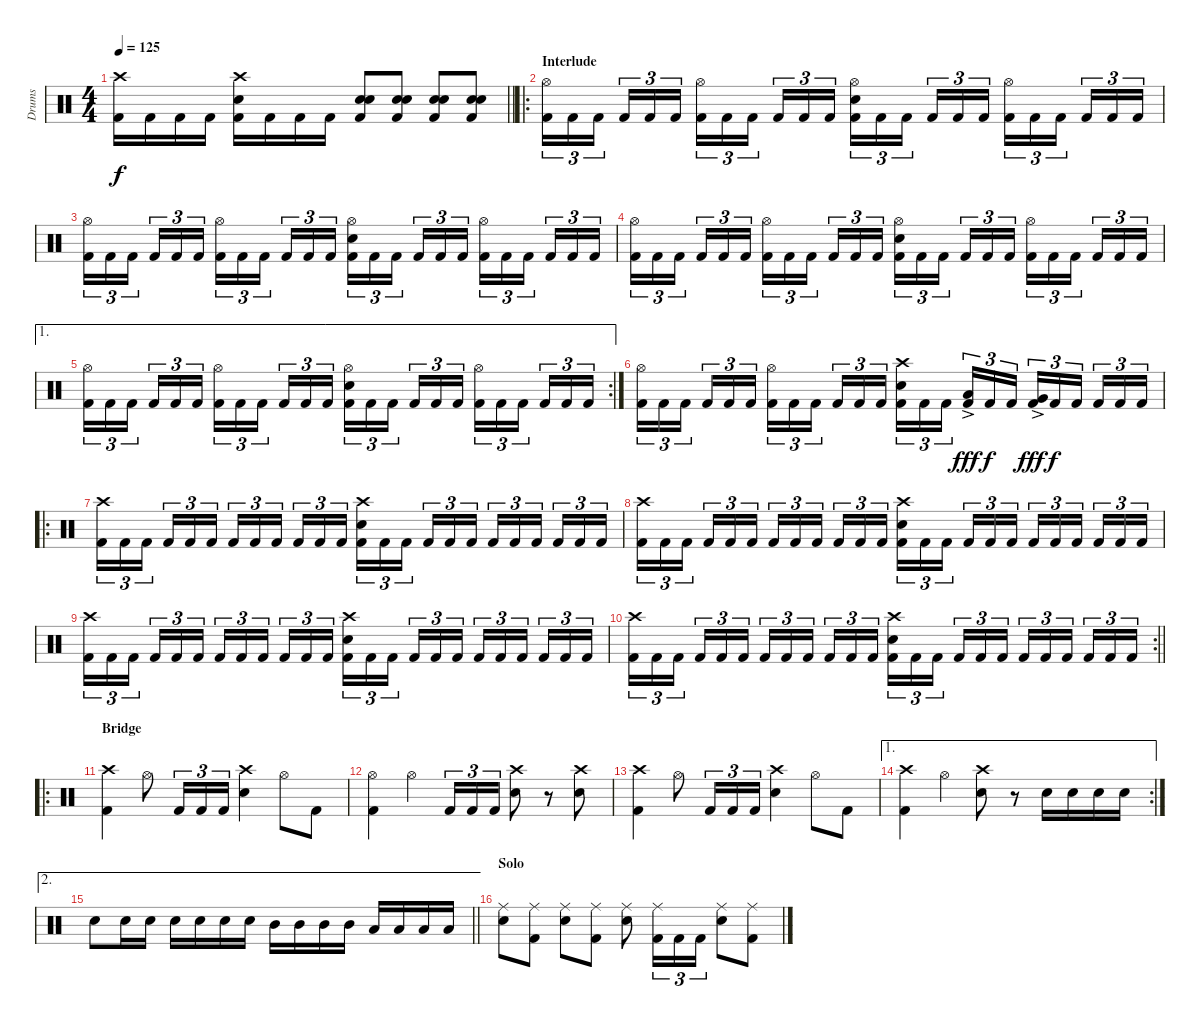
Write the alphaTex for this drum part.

\track ("Drums" "Drums") {instrument percussion}
\staff {score}
\articulation defaults
\ts (4 4)
\tempo 125
\clef neutral
\barLineRight lightlight
\ks c
("Crash high (hit)" "Kick (hit) 2").16{dy f} "Kick (hit) 2".16 "Kick (hit) 2".16 "Kick (hit) 2".16 ("Crash high (hit)" "Snare (hit) 2" "Kick (hit) 2").16 "Kick (hit) 2".16 "Kick (hit) 2".16 "Kick (hit) 2".16 ("Snare (hit) 2" "Snare (hit) 2" "Kick (hit) 2").8 ("Snare (hit) 2" "Snare (hit) 2" "Kick (hit) 2").8 ("Snare (hit) 2" "Snare (hit) 2" "Kick (hit) 2").8 ("Snare (hit) 2" "Snare (hit) 2" "Kick (hit) 2").8 |
\ro
\section ("" "Interlude")
("Hi-Hat (open)" "Kick (hit) 2").16{tu (3 2)} "Kick (hit) 2".16{tu (3 2)} "Kick (hit) 2".16{tu (3 2) beam splitsecondary} "Kick (hit) 2".16{tu (3 2)} "Kick (hit) 2".16{tu (3 2)} "Kick (hit) 2".16{tu (3 2)} ("Hi-Hat (open)" "Kick (hit) 2").16{tu (3 2)} "Kick (hit) 2".16{tu (3 2)} "Kick (hit) 2".16{tu (3 2) beam splitsecondary} "Kick (hit) 2".16{tu (3 2)} "Kick (hit) 2".16{tu (3 2)} "Kick (hit) 2".16{tu (3 2)} ("Hi-Hat (open)" "Snare (hit) 2" "Kick (hit) 2").16{tu (3 2)} "Kick (hit) 2".16{tu (3 2)} "Kick (hit) 2".16{tu (3 2) beam splitsecondary} "Kick (hit) 2".16{tu (3 2)} "Kick (hit) 2".16{tu (3 2)} "Kick (hit) 2".16{tu (3 2)} ("Hi-Hat (open)" "Kick (hit) 2").16{tu (3 2)} "Kick (hit) 2".16{tu (3 2)} "Kick (hit) 2".16{tu (3 2) beam splitsecondary} "Kick (hit) 2".16{tu (3 2)} "Kick (hit) 2".16{tu (3 2)} "Kick (hit) 2".16{tu (3 2)} |
("Hi-Hat (open)" "Kick (hit) 2").16{tu (3 2)} "Kick (hit) 2".16{tu (3 2)} "Kick (hit) 2".16{tu (3 2) beam splitsecondary} "Kick (hit) 2".16{tu (3 2)} "Kick (hit) 2".16{tu (3 2)} "Kick (hit) 2".16{tu (3 2)} ("Hi-Hat (open)" "Kick (hit) 2").16{tu (3 2)} "Kick (hit) 2".16{tu (3 2)} "Kick (hit) 2".16{tu (3 2) beam splitsecondary} "Kick (hit) 2".16{tu (3 2)} "Kick (hit) 2".16{tu (3 2)} "Kick (hit) 2".16{tu (3 2)} ("Hi-Hat (open)" "Snare (hit) 2" "Kick (hit) 2").16{tu (3 2)} "Kick (hit) 2".16{tu (3 2)} "Kick (hit) 2".16{tu (3 2) beam splitsecondary} "Kick (hit) 2".16{tu (3 2)} "Kick (hit) 2".16{tu (3 2)} "Kick (hit) 2".16{tu (3 2)} ("Hi-Hat (open)" "Kick (hit) 2").16{tu (3 2)} "Kick (hit) 2".16{tu (3 2)} "Kick (hit) 2".16{tu (3 2) beam splitsecondary} "Kick (hit) 2".16{tu (3 2)} "Kick (hit) 2".16{tu (3 2)} "Kick (hit) 2".16{tu (3 2)} |
("Hi-Hat (open)" "Kick (hit) 2").16{tu (3 2)} "Kick (hit) 2".16{tu (3 2)} "Kick (hit) 2".16{tu (3 2) beam splitsecondary} "Kick (hit) 2".16{tu (3 2)} "Kick (hit) 2".16{tu (3 2)} "Kick (hit) 2".16{tu (3 2)} ("Hi-Hat (open)" "Kick (hit) 2").16{tu (3 2)} "Kick (hit) 2".16{tu (3 2)} "Kick (hit) 2".16{tu (3 2) beam splitsecondary} "Kick (hit) 2".16{tu (3 2)} "Kick (hit) 2".16{tu (3 2)} "Kick (hit) 2".16{tu (3 2)} ("Hi-Hat (open)" "Snare (hit) 2" "Kick (hit) 2").16{tu (3 2)} "Kick (hit) 2".16{tu (3 2)} "Kick (hit) 2".16{tu (3 2) beam splitsecondary} "Kick (hit) 2".16{tu (3 2)} "Kick (hit) 2".16{tu (3 2)} "Kick (hit) 2".16{tu (3 2)} ("Hi-Hat (open)" "Kick (hit) 2").16{tu (3 2)} "Kick (hit) 2".16{tu (3 2)} "Kick (hit) 2".16{tu (3 2) beam splitsecondary} "Kick (hit) 2".16{tu (3 2)} "Kick (hit) 2".16{tu (3 2)} "Kick (hit) 2".16{tu (3 2)} |
\ae 1
\rc 2
("Hi-Hat (open)" "Kick (hit) 2").16{tu (3 2)} "Kick (hit) 2".16{tu (3 2)} "Kick (hit) 2".16{tu (3 2) beam splitsecondary} "Kick (hit) 2".16{tu (3 2)} "Kick (hit) 2".16{tu (3 2)} "Kick (hit) 2".16{tu (3 2)} ("Hi-Hat (open)" "Kick (hit) 2").16{tu (3 2)} "Kick (hit) 2".16{tu (3 2)} "Kick (hit) 2".16{tu (3 2) beam splitsecondary} "Kick (hit) 2".16{tu (3 2)} "Kick (hit) 2".16{tu (3 2)} "Kick (hit) 2".16{tu (3 2)} ("Hi-Hat (open)" "Snare (hit) 2" "Kick (hit) 2").16{tu (3 2)} "Kick (hit) 2".16{tu (3 2)} "Kick (hit) 2".16{tu (3 2) beam splitsecondary} "Kick (hit) 2".16{tu (3 2)} "Kick (hit) 2".16{tu (3 2)} "Kick (hit) 2".16{tu (3 2)} ("Hi-Hat (open)" "Kick (hit) 2").16{tu (3 2)} "Kick (hit) 2".16{tu (3 2)} "Kick (hit) 2".16{tu (3 2) beam splitsecondary} "Kick (hit) 2".16{tu (3 2)} "Kick (hit) 2".16{tu (3 2)} "Kick (hit) 2".16{tu (3 2)} |
("Hi-Hat (open)" "Kick (hit) 2").16{tu (3 2)} "Kick (hit) 2".16{tu (3 2)} "Kick (hit) 2".16{tu (3 2) beam splitsecondary} "Kick (hit) 2".16{tu (3 2)} "Kick (hit) 2".16{tu (3 2)} "Kick (hit) 2".16{tu (3 2)} ("Hi-Hat (open)" "Kick (hit) 2").16{tu (3 2)} "Kick (hit) 2".16{tu (3 2)} "Kick (hit) 2".16{tu (3 2) beam splitsecondary} "Kick (hit) 2".16{tu (3 2)} "Kick (hit) 2".16{tu (3 2)} "Kick (hit) 2".16{tu (3 2)} ("Crash high (hit)" "Snare (hit) 2" "Kick (hit) 2").16{tu (3 2)} "Kick (hit) 2".16{tu (3 2)} "Kick (hit) 2".16{tu (3 2) beam splitsecondary} ("Low Tom (hit)"{ac} "Kick (hit) 2").16{tu (3 2) dy fff} "Kick (hit) 2".16{tu (3 2) dy f} "Kick (hit) 2".16{tu (3 2)} ("Very Low Tom (hit)"{ac} "Kick (hit) 2").16{tu (3 2) dy fff} "Kick (hit) 2".16{tu (3 2) dy f} "Kick (hit) 2".16{tu (3 2) beam splitsecondary} "Kick (hit) 2".16{tu (3 2)} "Kick (hit) 2".16{tu (3 2)} "Kick (hit) 2".16{tu (3 2)} |
\ro
("Crash high (hit)" "Kick (hit) 2").16{tu (3 2)} "Kick (hit) 2".16{tu (3 2)} "Kick (hit) 2".16{tu (3 2) beam splitsecondary} "Kick (hit) 2".16{tu (3 2)} "Kick (hit) 2".16{tu (3 2)} "Kick (hit) 2".16{tu (3 2)} "Kick (hit) 2".16{tu (3 2)} "Kick (hit) 2".16{tu (3 2)} "Kick (hit) 2".16{tu (3 2) beam splitsecondary} "Kick (hit) 2".16{tu (3 2)} "Kick (hit) 2".16{tu (3 2)} "Kick (hit) 2".16{tu (3 2)} ("Crash high (hit)" "Snare (hit) 2" "Kick (hit) 2").16{tu (3 2)} "Kick (hit) 2".16{tu (3 2)} "Kick (hit) 2".16{tu (3 2) beam splitsecondary} "Kick (hit) 2".16{tu (3 2)} "Kick (hit) 2".16{tu (3 2)} "Kick (hit) 2".16{tu (3 2)} "Kick (hit) 2".16{tu (3 2)} "Kick (hit) 2".16{tu (3 2)} "Kick (hit) 2".16{tu (3 2) beam splitsecondary} "Kick (hit) 2".16{tu (3 2)} "Kick (hit) 2".16{tu (3 2)} "Kick (hit) 2".16{tu (3 2)} |
("Crash high (hit)" "Kick (hit) 2").16{tu (3 2)} "Kick (hit) 2".16{tu (3 2)} "Kick (hit) 2".16{tu (3 2) beam splitsecondary} "Kick (hit) 2".16{tu (3 2)} "Kick (hit) 2".16{tu (3 2)} "Kick (hit) 2".16{tu (3 2)} "Kick (hit) 2".16{tu (3 2)} "Kick (hit) 2".16{tu (3 2)} "Kick (hit) 2".16{tu (3 2) beam splitsecondary} "Kick (hit) 2".16{tu (3 2)} "Kick (hit) 2".16{tu (3 2)} "Kick (hit) 2".16{tu (3 2)} ("Crash high (hit)" "Snare (hit) 2" "Kick (hit) 2").16{tu (3 2)} "Kick (hit) 2".16{tu (3 2)} "Kick (hit) 2".16{tu (3 2) beam splitsecondary} "Kick (hit) 2".16{tu (3 2)} "Kick (hit) 2".16{tu (3 2)} "Kick (hit) 2".16{tu (3 2)} "Kick (hit) 2".16{tu (3 2)} "Kick (hit) 2".16{tu (3 2)} "Kick (hit) 2".16{tu (3 2) beam splitsecondary} "Kick (hit) 2".16{tu (3 2)} "Kick (hit) 2".16{tu (3 2)} "Kick (hit) 2".16{tu (3 2)} |
("Crash high (hit)" "Kick (hit) 2").16{tu (3 2)} "Kick (hit) 2".16{tu (3 2)} "Kick (hit) 2".16{tu (3 2) beam splitsecondary} "Kick (hit) 2".16{tu (3 2)} "Kick (hit) 2".16{tu (3 2)} "Kick (hit) 2".16{tu (3 2)} "Kick (hit) 2".16{tu (3 2)} "Kick (hit) 2".16{tu (3 2)} "Kick (hit) 2".16{tu (3 2) beam splitsecondary} "Kick (hit) 2".16{tu (3 2)} "Kick (hit) 2".16{tu (3 2)} "Kick (hit) 2".16{tu (3 2)} ("Crash high (hit)" "Snare (hit) 2" "Kick (hit) 2").16{tu (3 2)} "Kick (hit) 2".16{tu (3 2)} "Kick (hit) 2".16{tu (3 2) beam splitsecondary} "Kick (hit) 2".16{tu (3 2)} "Kick (hit) 2".16{tu (3 2)} "Kick (hit) 2".16{tu (3 2)} "Kick (hit) 2".16{tu (3 2)} "Kick (hit) 2".16{tu (3 2)} "Kick (hit) 2".16{tu (3 2) beam splitsecondary} "Kick (hit) 2".16{tu (3 2)} "Kick (hit) 2".16{tu (3 2)} "Kick (hit) 2".16{tu (3 2)} |
\rc 2
\barLineRight lightlight
("Crash high (hit)" "Kick (hit) 2").16{tu (3 2)} "Kick (hit) 2".16{tu (3 2)} "Kick (hit) 2".16{tu (3 2) beam splitsecondary} "Kick (hit) 2".16{tu (3 2)} "Kick (hit) 2".16{tu (3 2)} "Kick (hit) 2".16{tu (3 2)} "Kick (hit) 2".16{tu (3 2)} "Kick (hit) 2".16{tu (3 2)} "Kick (hit) 2".16{tu (3 2) beam splitsecondary} "Kick (hit) 2".16{tu (3 2)} "Kick (hit) 2".16{tu (3 2)} "Kick (hit) 2".16{tu (3 2)} ("Crash high (hit)" "Snare (hit) 2" "Kick (hit) 2").16{tu (3 2)} "Kick (hit) 2".16{tu (3 2)} "Kick (hit) 2".16{tu (3 2) beam splitsecondary} "Kick (hit) 2".16{tu (3 2)} "Kick (hit) 2".16{tu (3 2)} "Kick (hit) 2".16{tu (3 2)} "Kick (hit) 2".16{tu (3 2)} "Kick (hit) 2".16{tu (3 2)} "Kick (hit) 2".16{tu (3 2) beam splitsecondary} "Kick (hit) 2".16{tu (3 2)} "Kick (hit) 2".16{tu (3 2)} "Kick (hit) 2".16{tu (3 2)} |
\ro
\section ("" "Bridge")
("Crash high (hit)" "Kick (hit) 2").4 "Hi-Hat (open)".8 "Kick (hit) 2".16{tu (3 2)} "Kick (hit) 2".16{tu (3 2)} "Kick (hit) 2".16{tu (3 2)} ("Crash high (hit)" "Snare (hit) 2").4 "Hi-Hat (open)".8 "Kick (hit) 2".8 |
("Hi-Hat (open)" "Kick (hit) 2").4 "Hi-Hat (open)".4 "Kick (hit) 2".16{tu (3 2)} "Kick (hit) 2".16{tu (3 2)} "Kick (hit) 2".16{tu (3 2)} ("Crash high (hit)" "Snare (hit) 2").8 r.8 ("Crash high (hit)" "Snare (hit) 2").8 |
("Crash high (hit)" "Kick (hit) 2").4 "Hi-Hat (open)".8 "Kick (hit) 2".16{tu (3 2)} "Kick (hit) 2".16{tu (3 2)} "Kick (hit) 2".16{tu (3 2)} ("Crash high (hit)" "Snare (hit) 2").4 "Hi-Hat (open)".8 "Kick (hit) 2".8 |
\ae 1
\rc 2
("Crash high (hit)" "Kick (hit) 2").4 "Hi-Hat (open)".4 ("Crash high (hit)" "Snare (hit) 2").8 r.8 "Snare (hit) 2".16 "Snare (hit) 2".16 "Snare (hit) 2".16 "Snare (hit) 2".16 |
\ae 2
\barLineRight lightlight "Snare (hit) 2".8 "Snare (hit) 2".16 "Snare (hit) 2".16 "Snare (hit) 2".16 "Snare (hit) 2".16 "Snare (hit) 2".16 "Snare (hit) 2".16 "Mid Tom (hit)".16 "Mid Tom (hit)".16 "Mid Tom (hit)".16 "Mid Tom (hit)".16 "Low Tom (hit)".16 "Low Tom (hit)".16 "Low Tom (hit)".16 "Low Tom (hit)".16
|
\section ("" "Solo")
("Ride (middle)" "Snare (hit) 2").8 ("Ride (middle)" "Kick (hit) 2").8 ("Ride (middle)" "Snare (hit) 2").8 ("Ride (middle)" "Kick (hit) 2").8 ("Ride (middle)" "Snare (hit) 2").8 ("Ride (middle)" "Kick (hit) 2").16{tu (3 2)} "Kick (hit) 2".16{tu (3 2)} "Kick (hit) 2".16{tu (3 2)} ("Ride (middle)" "Snare (hit) 2").8 ("Ride (middle)" "Kick (hit) 2").8
